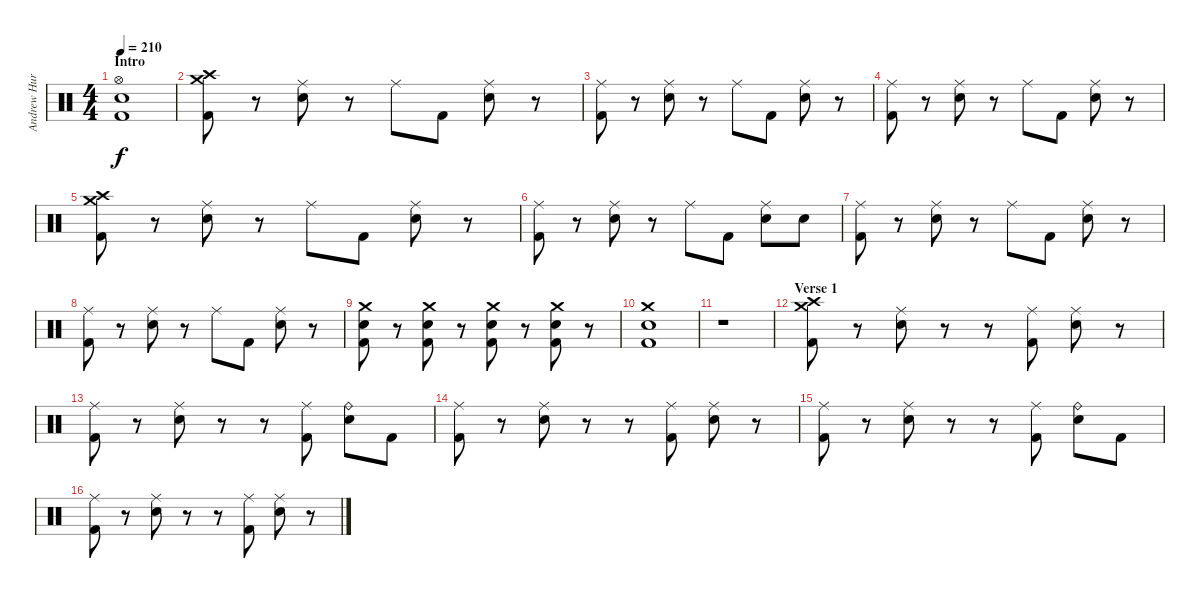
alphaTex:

\track ("Andrew Hurley (Drums)" "Andrew Hur") {instrument percussion}
\staff {score}
\articulation defaults
\ts (4 4)
\section ("" "Intro")
\tempo 210
\clef neutral
\ks c
("Hi-Hat (open)" "Electric Snare (hit)" "Kick (hit) 2").1{dy f} |
("Crash medium (hit)" "Crash high (hit)" "Kick (hit) 2").8 r.8 ("Ride (middle)" "Electric Snare (hit)").8 r.8 "Ride (middle)".8 "Kick (hit) 2".8 ("Ride (middle)" "Electric Snare (hit)").8 r.8 |
("Ride (middle)" "Kick (hit) 2").8 r.8 ("Ride (middle)" "Electric Snare (hit)").8 r.8 "Ride (middle)".8 "Kick (hit) 2".8 ("Ride (middle)" "Electric Snare (hit)").8 r.8 |
("Ride (middle)" "Kick (hit) 2").8 r.8 ("Ride (middle)" "Electric Snare (hit)").8 r.8 "Ride (middle)".8 "Kick (hit) 2".8 ("Ride (middle)" "Electric Snare (hit)").8 r.8 |
("Crash medium (hit)" "Crash high (hit)" "Kick (hit) 2").8 r.8 ("Ride (middle)" "Electric Snare (hit)").8 r.8 "Ride (middle)".8 "Kick (hit) 2".8 ("Ride (middle)" "Electric Snare (hit)").8 r.8 |
("Ride (middle)" "Kick (hit) 2").8 r.8 ("Ride (middle)" "Electric Snare (hit)").8 r.8 "Ride (middle)".8 "Kick (hit) 2".8 ("Ride (middle)" "Electric Snare (hit)").8 "Electric Snare (hit)".8 |
("Ride (middle)" "Kick (hit) 2").8 r.8 ("Ride (middle)" "Electric Snare (hit)").8 r.8 "Ride (middle)".8 "Kick (hit) 2".8 ("Ride (middle)" "Electric Snare (hit)").8 r.8 |
("Ride (middle)" "Kick (hit) 2").8 r.8 ("Ride (middle)" "Electric Snare (hit)").8 r.8 "Ride (middle)".8 "Kick (hit) 2".8 ("Ride (middle)" "Electric Snare (hit)").8 r.8 |
("Crash medium (hit)" "Electric Snare (hit)" "Kick (hit) 2").8 r.8 ("Crash medium (hit)" "Electric Snare (hit)" "Kick (hit) 2").8 r.8 ("Crash medium (hit)" "Electric Snare (hit)" "Kick (hit) 2").8 r.8 ("Crash medium (hit)" "Electric Snare (hit)" "Kick (hit) 2").8 r.8 |
("Crash medium (hit)" "Electric Snare (hit)" "Kick (hit) 2").1 |
r.1 |
\section ("" "Verse 1")
("Crash medium (hit)" "Crash high (hit)" "Kick (hit) 2").8 r.8 ("Ride (middle)" "Electric Snare (hit)").8 r.8 r.8 ("Ride (middle)" "Kick (hit) 2").8 ("Ride (middle)" "Electric Snare (hit)").8 r.8 |
("Ride (middle)" "Kick (hit) 2").8 r.8 ("Ride (middle)" "Electric Snare (hit)").8 r.8 r.8 ("Ride (middle)" "Kick (hit) 2").8 ("Ride (bell)" "Electric Snare (hit)").8 "Kick (hit) 2".8 |
("Ride (middle)" "Kick (hit) 2").8 r.8 ("Ride (middle)" "Electric Snare (hit)").8 r.8 r.8 ("Ride (middle)" "Kick (hit) 2").8 ("Ride (middle)" "Electric Snare (hit)").8 r.8 |
("Ride (middle)" "Kick (hit) 2").8 r.8 ("Ride (middle)" "Electric Snare (hit)").8 r.8 r.8 ("Ride (middle)" "Kick (hit) 2").8 ("Ride (bell)" "Electric Snare (hit)").8 "Kick (hit) 2".8 |
("Ride (middle)" "Kick (hit) 2").8 r.8 ("Ride (middle)" "Electric Snare (hit)").8 r.8 r.8 ("Ride (middle)" "Kick (hit) 2").8 ("Ride (middle)" "Electric Snare (hit)").8 r.8
